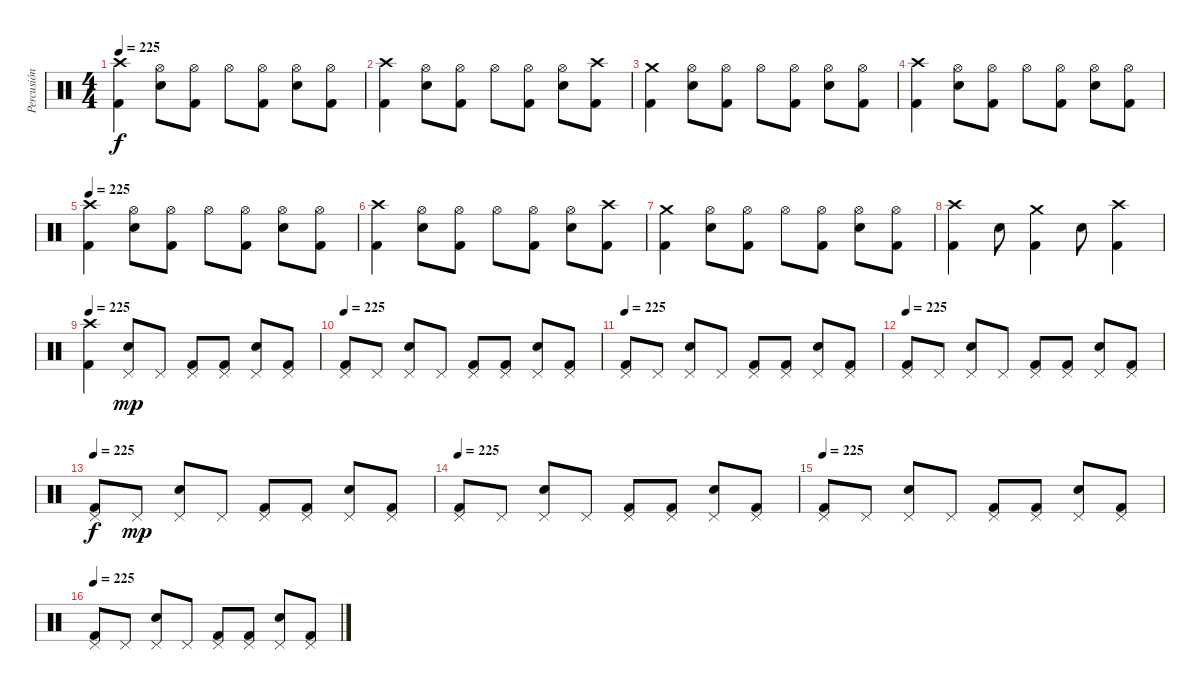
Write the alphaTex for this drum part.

\track ("Percusión" "Percusión") {instrument percussion}
\staff {score}
\articulation defaults
\ts (4 4)
\tempo 225
\clef neutral
\ks c
("Crash high (hit)" "Kick (hit) 2").4{dy f} ("Hi-Hat (open)" "Electric Snare (hit)").8 ("Hi-Hat (open)" "Kick (hit) 2").8 "Hi-Hat (open)".8 ("Hi-Hat (open)" "Kick (hit) 2").8 ("Hi-Hat (open)" "Electric Snare (hit)").8 ("Hi-Hat (open)" "Kick (hit) 2").8 |
("Crash high (hit)" "Kick (hit) 2").4 ("Hi-Hat (open)" "Electric Snare (hit)").8 ("Hi-Hat (open)" "Kick (hit) 2").8 "Hi-Hat (open)".8 ("Hi-Hat (open)" "Kick (hit) 2").8 ("Hi-Hat (open)" "Electric Snare (hit)").8 ("Crash high (hit)" "Kick (hit) 2").8 |
("Crash medium (hit)" "Kick (hit) 2").4 ("Hi-Hat (open)" "Electric Snare (hit)").8 ("Hi-Hat (open)" "Kick (hit) 2").8 "Hi-Hat (open)".8 ("Hi-Hat (open)" "Kick (hit) 2").8 ("Hi-Hat (open)" "Electric Snare (hit)").8 ("Hi-Hat (open)" "Kick (hit) 2").8 |
("Crash high (hit)" "Kick (hit) 2").4 ("Hi-Hat (open)" "Electric Snare (hit)").8 ("Hi-Hat (open)" "Kick (hit) 2").8 "Hi-Hat (open)".8 ("Hi-Hat (open)" "Kick (hit) 2").8 ("Hi-Hat (open)" "Electric Snare (hit)").8 ("Hi-Hat (open)" "Kick (hit) 2").8 |
\tempo 225
("Crash high (hit)" "Kick (hit) 2").4 ("Hi-Hat (open)" "Electric Snare (hit)").8 ("Hi-Hat (open)" "Kick (hit) 2").8 "Hi-Hat (open)".8 ("Hi-Hat (open)" "Kick (hit) 2").8 ("Hi-Hat (open)" "Electric Snare (hit)").8 ("Hi-Hat (open)" "Kick (hit) 2").8 |
("Crash high (hit)" "Kick (hit) 2").4 ("Hi-Hat (open)" "Electric Snare (hit)").8 ("Hi-Hat (open)" "Kick (hit) 2").8 "Hi-Hat (open)".8 ("Hi-Hat (open)" "Kick (hit) 2").8 ("Hi-Hat (open)" "Electric Snare (hit)").8 ("Crash high (hit)" "Kick (hit) 2").8 |
("Crash medium (hit)" "Kick (hit) 2").4 ("Hi-Hat (open)" "Electric Snare (hit)").8 ("Hi-Hat (open)" "Kick (hit) 2").8 "Hi-Hat (open)".8 ("Hi-Hat (open)" "Kick (hit) 2").8 ("Hi-Hat (open)" "Electric Snare (hit)").8 ("Hi-Hat (open)" "Kick (hit) 2").8 |
("Crash high (hit)" "Kick (hit) 2").4 "Electric Snare (hit)".8 ("Crash medium (hit)" "Kick (hit) 2").4 "Electric Snare (hit)".8 ("Crash high (hit)" "Kick (hit) 2").4 |
\tempo 225
("Crash high (hit)" "Kick (hit) 2").4 ("Pedal Hi-Hat (hit)" "Electric Snare (hit)").8{dy mp} "Pedal Hi-Hat (hit)".8 ("Pedal Hi-Hat (hit)" "Kick (hit) 2").8 ("Pedal Hi-Hat (hit)" "Kick (hit) 2").8 ("Pedal Hi-Hat (hit)" "Electric Snare (hit)").8 ("Pedal Hi-Hat (hit)" "Kick (hit) 2").8 |
\tempo 225
("Pedal Hi-Hat (hit)" "Kick (hit) 2").8 "Pedal Hi-Hat (hit)".8 ("Pedal Hi-Hat (hit)" "Electric Snare (hit)").8 "Pedal Hi-Hat (hit)".8 ("Pedal Hi-Hat (hit)" "Kick (hit) 2").8 ("Pedal Hi-Hat (hit)" "Kick (hit) 2").8 ("Pedal Hi-Hat (hit)" "Electric Snare (hit)").8 ("Pedal Hi-Hat (hit)" "Kick (hit) 2").8 |
\tempo 225
("Pedal Hi-Hat (hit)" "Kick (hit) 2").8 "Pedal Hi-Hat (hit)".8 ("Pedal Hi-Hat (hit)" "Electric Snare (hit)").8 "Pedal Hi-Hat (hit)".8 ("Pedal Hi-Hat (hit)" "Kick (hit) 2").8 ("Pedal Hi-Hat (hit)" "Kick (hit) 2").8 ("Pedal Hi-Hat (hit)" "Electric Snare (hit)").8 ("Pedal Hi-Hat (hit)" "Kick (hit) 2").8 |
\tempo 225
("Pedal Hi-Hat (hit)" "Kick (hit) 2").8 "Pedal Hi-Hat (hit)".8 ("Pedal Hi-Hat (hit)" "Electric Snare (hit)").8 "Pedal Hi-Hat (hit)".8 ("Pedal Hi-Hat (hit)" "Kick (hit) 2").8 ("Pedal Hi-Hat (hit)" "Kick (hit) 2").8 ("Pedal Hi-Hat (hit)" "Electric Snare (hit)").8 ("Pedal Hi-Hat (hit)" "Kick (hit) 2").8 |
\tempo 225
("Pedal Hi-Hat (hit)" "Kick (hit) 2").8{dy f} "Pedal Hi-Hat (hit)".8{dy mp} ("Pedal Hi-Hat (hit)" "Electric Snare (hit)").8 "Pedal Hi-Hat (hit)".8 ("Pedal Hi-Hat (hit)" "Kick (hit) 2").8 ("Pedal Hi-Hat (hit)" "Kick (hit) 2").8 ("Pedal Hi-Hat (hit)" "Electric Snare (hit)").8 ("Pedal Hi-Hat (hit)" "Kick (hit) 2").8 |
\tempo 225
("Pedal Hi-Hat (hit)" "Kick (hit) 2").8 "Pedal Hi-Hat (hit)".8 ("Pedal Hi-Hat (hit)" "Electric Snare (hit)").8 "Pedal Hi-Hat (hit)".8 ("Pedal Hi-Hat (hit)" "Kick (hit) 2").8 ("Pedal Hi-Hat (hit)" "Kick (hit) 2").8 ("Pedal Hi-Hat (hit)" "Electric Snare (hit)").8 ("Pedal Hi-Hat (hit)" "Kick (hit) 2").8 |
\tempo 225
("Pedal Hi-Hat (hit)" "Kick (hit) 2").8 "Pedal Hi-Hat (hit)".8 ("Pedal Hi-Hat (hit)" "Electric Snare (hit)").8 "Pedal Hi-Hat (hit)".8 ("Pedal Hi-Hat (hit)" "Kick (hit) 2").8 ("Pedal Hi-Hat (hit)" "Kick (hit) 2").8 ("Pedal Hi-Hat (hit)" "Electric Snare (hit)").8 ("Pedal Hi-Hat (hit)" "Kick (hit) 2").8 |
\tempo 225
("Pedal Hi-Hat (hit)" "Kick (hit) 2").8 "Pedal Hi-Hat (hit)".8 ("Pedal Hi-Hat (hit)" "Electric Snare (hit)").8 "Pedal Hi-Hat (hit)".8 ("Pedal Hi-Hat (hit)" "Kick (hit) 2").8 ("Pedal Hi-Hat (hit)" "Kick (hit) 2").8 ("Pedal Hi-Hat (hit)" "Electric Snare (hit)").8 ("Pedal Hi-Hat (hit)" "Kick (hit) 2").8
